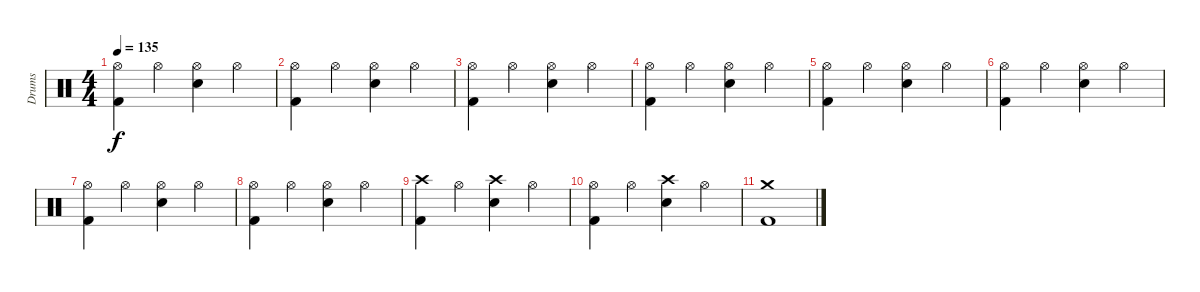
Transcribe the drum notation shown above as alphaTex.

\track ("Drums" "Drums") {instrument percussion}
\staff {score}
\articulation defaults
\ts (4 4)
\tempo 135
\clef neutral
\ks c
("Hi-Hat (open)" "Kick (hit) 2").4{dy f} "Hi-Hat (open)".4 ("Hi-Hat (open)" "Electric Snare (hit)").4 "Hi-Hat (open)".4 |
("Hi-Hat (open)" "Kick (hit) 2").4 "Hi-Hat (open)".4 ("Hi-Hat (open)" "Electric Snare (hit)").4 "Hi-Hat (open)".4 |
("Hi-Hat (open)" "Kick (hit) 2").4 "Hi-Hat (open)".4 ("Hi-Hat (open)" "Electric Snare (hit)").4 "Hi-Hat (open)".4 |
("Hi-Hat (open)" "Kick (hit) 2").4 "Hi-Hat (open)".4 ("Hi-Hat (open)" "Electric Snare (hit)").4 "Hi-Hat (open)".4 |
("Hi-Hat (open)" "Kick (hit) 2").4 "Hi-Hat (open)".4 ("Hi-Hat (open)" "Electric Snare (hit)").4 "Hi-Hat (open)".4 |
("Hi-Hat (open)" "Kick (hit) 2").4 "Hi-Hat (open)".4 ("Hi-Hat (open)" "Electric Snare (hit)").4 "Hi-Hat (open)".4 |
("Hi-Hat (open)" "Kick (hit) 2").4 "Hi-Hat (open)".4 ("Hi-Hat (open)" "Electric Snare (hit)").4 "Hi-Hat (open)".4 |
("Hi-Hat (open)" "Kick (hit) 2").4 "Hi-Hat (open)".4 ("Hi-Hat (open)" "Electric Snare (hit)").4 "Hi-Hat (open)".4 |
("Crash high (hit)" "Kick (hit) 2").4 "Hi-Hat (open)".4 ("Crash high (hit)" "Electric Snare (hit)").4 "Hi-Hat (open)".4 |
("Hi-Hat (open)" "Kick (hit) 2").4 "Hi-Hat (open)".4 ("Crash high (hit)" "Electric Snare (hit)").4 "Hi-Hat (open)".4 |
("Crash medium (hit)" "Kick (hit) 2").1
